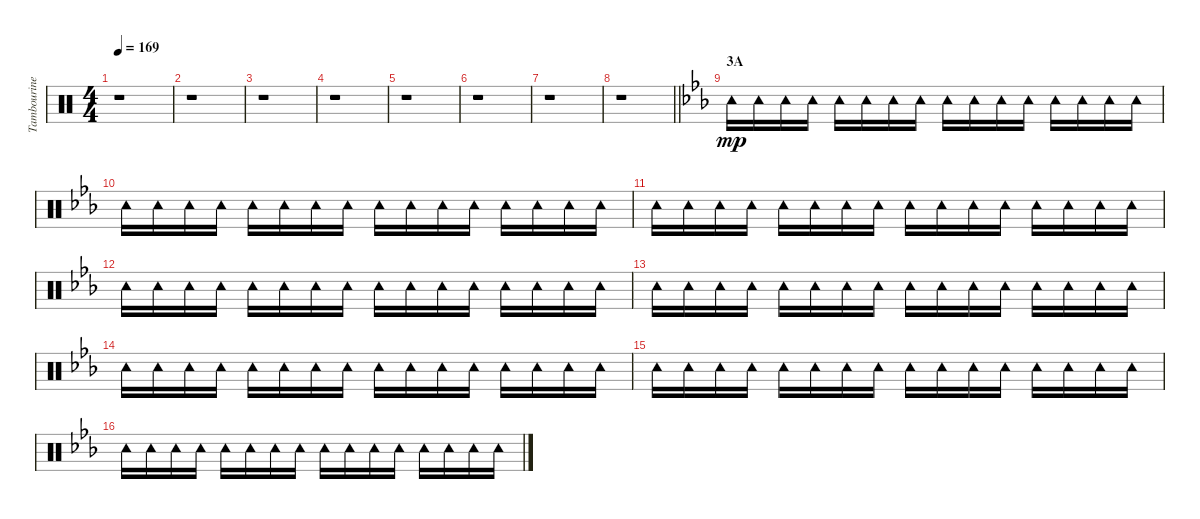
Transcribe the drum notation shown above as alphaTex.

\track ("Tambourine" "Tambourine") {instrument percussion}
\staff {score}
\articulation defaults
\ts (4 4)
\tempo 169
\clef neutral
\ks c
r.1{dy mp} |
r.1 |
r.1 |
r.1 |
r.1 |
r.1 |
r.1 |
\barLineRight lightlight
r.1 |
\section ("" "3A")
\ks eb "Tambourine (hit)".16 "Tambourine (hit)".16 "Tambourine (hit)".16 "Tambourine (hit)".16 "Tambourine (hit)".16 "Tambourine (hit)".16 "Tambourine (hit)".16 "Tambourine (hit)".16 "Tambourine (hit)".16 "Tambourine (hit)".16 "Tambourine (hit)".16 "Tambourine (hit)".16 "Tambourine (hit)".16 "Tambourine (hit)".16 "Tambourine (hit)".16 "Tambourine (hit)".16
|
"Tambourine (hit)".16 "Tambourine (hit)".16 "Tambourine (hit)".16 "Tambourine (hit)".16 "Tambourine (hit)".16 "Tambourine (hit)".16 "Tambourine (hit)".16 "Tambourine (hit)".16 "Tambourine (hit)".16 "Tambourine (hit)".16 "Tambourine (hit)".16 "Tambourine (hit)".16 "Tambourine (hit)".16 "Tambourine (hit)".16 "Tambourine (hit)".16 "Tambourine (hit)".16 |
"Tambourine (hit)".16 "Tambourine (hit)".16 "Tambourine (hit)".16 "Tambourine (hit)".16 "Tambourine (hit)".16 "Tambourine (hit)".16 "Tambourine (hit)".16 "Tambourine (hit)".16 "Tambourine (hit)".16 "Tambourine (hit)".16 "Tambourine (hit)".16 "Tambourine (hit)".16 "Tambourine (hit)".16 "Tambourine (hit)".16 "Tambourine (hit)".16 "Tambourine (hit)".16 |
"Tambourine (hit)".16 "Tambourine (hit)".16 "Tambourine (hit)".16 "Tambourine (hit)".16 "Tambourine (hit)".16 "Tambourine (hit)".16 "Tambourine (hit)".16 "Tambourine (hit)".16 "Tambourine (hit)".16 "Tambourine (hit)".16 "Tambourine (hit)".16 "Tambourine (hit)".16 "Tambourine (hit)".16 "Tambourine (hit)".16 "Tambourine (hit)".16 "Tambourine (hit)".16 |
"Tambourine (hit)".16 "Tambourine (hit)".16 "Tambourine (hit)".16 "Tambourine (hit)".16 "Tambourine (hit)".16 "Tambourine (hit)".16 "Tambourine (hit)".16 "Tambourine (hit)".16 "Tambourine (hit)".16 "Tambourine (hit)".16 "Tambourine (hit)".16 "Tambourine (hit)".16 "Tambourine (hit)".16 "Tambourine (hit)".16 "Tambourine (hit)".16 "Tambourine (hit)".16 |
"Tambourine (hit)".16 "Tambourine (hit)".16 "Tambourine (hit)".16 "Tambourine (hit)".16 "Tambourine (hit)".16 "Tambourine (hit)".16 "Tambourine (hit)".16 "Tambourine (hit)".16 "Tambourine (hit)".16 "Tambourine (hit)".16 "Tambourine (hit)".16 "Tambourine (hit)".16 "Tambourine (hit)".16 "Tambourine (hit)".16 "Tambourine (hit)".16 "Tambourine (hit)".16 |
"Tambourine (hit)".16 "Tambourine (hit)".16 "Tambourine (hit)".16 "Tambourine (hit)".16 "Tambourine (hit)".16 "Tambourine (hit)".16 "Tambourine (hit)".16 "Tambourine (hit)".16 "Tambourine (hit)".16 "Tambourine (hit)".16 "Tambourine (hit)".16 "Tambourine (hit)".16 "Tambourine (hit)".16 "Tambourine (hit)".16 "Tambourine (hit)".16 "Tambourine (hit)".16 |
"Tambourine (hit)".16 "Tambourine (hit)".16 "Tambourine (hit)".16 "Tambourine (hit)".16 "Tambourine (hit)".16 "Tambourine (hit)".16 "Tambourine (hit)".16 "Tambourine (hit)".16 "Tambourine (hit)".16 "Tambourine (hit)".16 "Tambourine (hit)".16 "Tambourine (hit)".16 "Tambourine (hit)".16 "Tambourine (hit)".16 "Tambourine (hit)".16 "Tambourine (hit)".16
